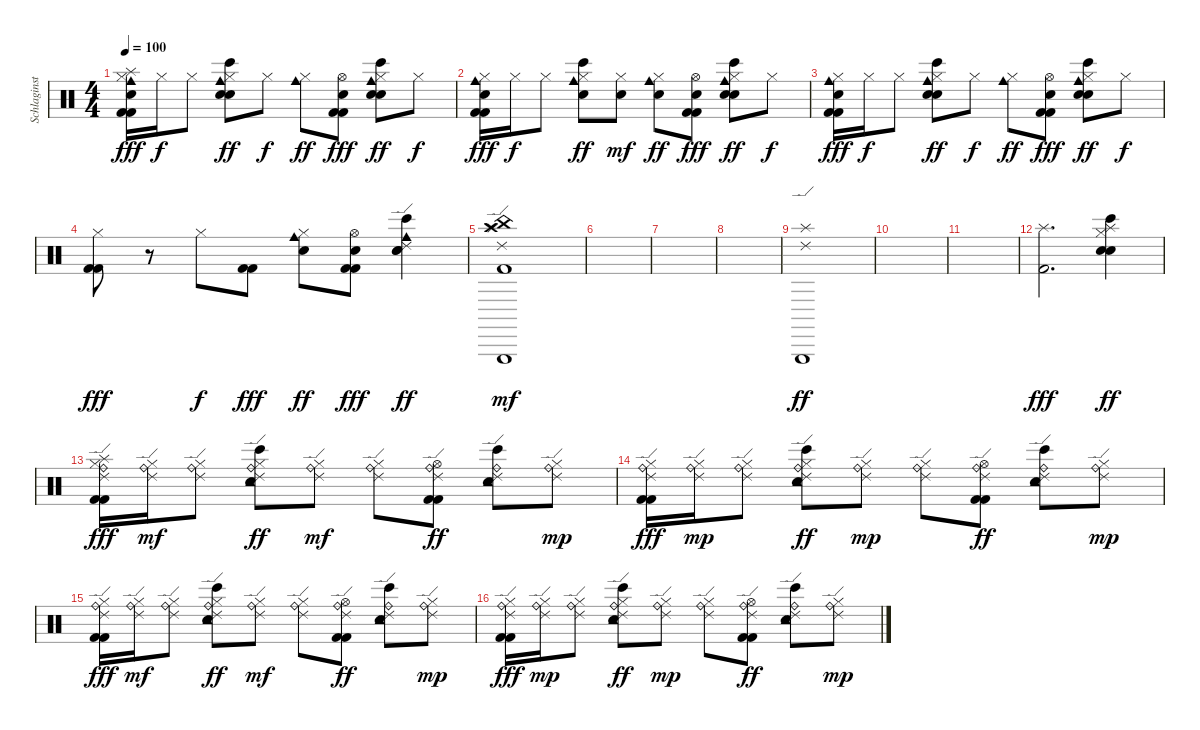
\track ("Schlaginstrumente - Auswahl" "Schlaginst") {instrument percussion}
\staff {score}
\articulation defaults
\ts (4 4)
\tempo 100
\clef neutral
\ks c
("Splash (hit)" "Hand Clap (hit)" "Hi-Hat (closed)" "Cowbell medium (hit)" "Kick (hit) 2" "Kick (hit) 2").16{dy fff} "Hi-Hat (closed)".16{dy f} "Hi-Hat (closed)".8 ("Snare (hit) 2" "Hand Clap (hit)" "Hi-Hat (closed)" "Cowbell medium (hit)" "Bongo High (hit)").8{dy ff} "Hi-Hat (closed)".8{dy f} ("Hi-Hat (closed)" "Cowbell medium (hit)").8{dy ff} ("Hand Clap (hit)" "Hi-Hat (open)" "Kick (hit) 2" "Kick (hit) 2").8{dy fff} ("Snare (hit) 2" "Hand Clap (hit)" "Hi-Hat (closed)" "Cowbell medium (hit)" "Bongo High (hit)").8{dy ff} "Hi-Hat (closed)".8{dy f} |
("Hand Clap (hit)" "Hi-Hat (closed)" "Cowbell medium (hit)" "Kick (hit) 2" "Kick (hit) 2").16{dy fff} "Hi-Hat (closed)".16{dy f} "Hi-Hat (closed)".8 ("Snare (hit) 2" "Hi-Hat (closed)" "Cowbell medium (hit)" "Bongo High (hit)").8{dy ff} ("Hand Clap (hit)" "Hi-Hat (closed)").8{dy mf} ("Hand Clap (hit)" "Hi-Hat (closed)" "Cowbell medium (hit)").8{dy ff} ("Hand Clap (hit)" "Hi-Hat (open)" "Kick (hit) 2" "Kick (hit) 2").8{dy fff} ("Snare (hit) 2" "Hand Clap (hit)" "Hi-Hat (closed)" "Cowbell medium (hit)" "Bongo High (hit)").8{dy ff} "Hi-Hat (closed)".8{dy f} |
("Hand Clap (hit)" "Hi-Hat (closed)" "Cowbell medium (hit)" "Kick (hit) 2" "Kick (hit) 2").16{dy fff} "Hi-Hat (closed)".16{dy f} "Hi-Hat (closed)".8 ("Snare (hit) 2" "Hand Clap (hit)" "Hi-Hat (closed)" "Cowbell medium (hit)" "Bongo High (hit)").8{dy ff} "Hi-Hat (closed)".8{dy f} ("Hi-Hat (closed)" "Cowbell medium (hit)").8{dy ff} ("Hand Clap (hit)" "Hi-Hat (open)" "Kick (hit) 2" "Kick (hit) 2").8{dy fff} ("Snare (hit) 2" "Hand Clap (hit)" "Hi-Hat (closed)" "Cowbell medium (hit)" "Bongo High (hit)").8{dy ff} "Hi-Hat (closed)".8{dy f} |
("Hi-Hat (closed)" "Kick (hit) 2" "Kick (hit) 2").8{dy fff} r.8 "Hi-Hat (closed)".8{dy f} ("Kick (hit) 2" "Kick (hit) 2").8{dy fff} ("Hand Clap (hit)" "Hi-Hat (closed)" "Cowbell medium (hit)").8{dy ff} ("Hand Clap (hit)" "Hi-Hat (open)" "Kick (hit) 2" "Kick (hit) 2").8{dy fff} ("Snare (hit) 2" "Hand Clap (hit)" "Ride (edge) 2" "Cowbell medium (hit)" "Bongo High (hit)").4{dy ff} |
("China (hit)" "Splash (hit)" "Ride (edge) 2" "Triangle (hit)" "Crash high (hit)" "Kick (hit) 2").1{dy mf} |
|
|
|
("Splash (hit)" "Ride (edge) 2" "Triangle (hit)").1{dy ff} |
|
|
("Splash (hit)" "Kick (hit) 2").2{d dy fff} ("Snare (hit) 2" "Hand Clap (hit)" "Hi-Hat (closed)" "Bongo High (hit)" "Splash (hit)").4{dy ff} |
("Splash (hit)" "Ride (bell)" "Ride (edge) 2" "Hi-Hat (closed)" "Kick (hit) 2" "Kick (hit) 2").16{dy fff volume 11} ("Ride (bell)" "Ride (edge) 2" "Hi-Hat (closed)").16{dy mf} ("Ride (bell)" "Ride (edge) 2" "Hi-Hat (closed)").8 ("Snare (hit) 2" "Ride (bell)" "Ride (edge) 2" "Hi-Hat (closed)" "Bongo High (hit)" "Tambourine (hit)").8{dy ff} ("Ride (bell)" "Ride (edge) 2" "Hi-Hat (closed)").8{dy mf} ("Ride (bell)" "Ride (edge) 2" "Hi-Hat (closed)").8 ("Ride (bell)" "Ride (edge) 2" "Hi-Hat (open)" "Kick (hit) 2" "Kick (hit) 2").8{dy ff} ("Snare (hit) 2" "Ride (bell)" "Ride (edge) 2" "Bongo High (hit)" "Tambourine (hit)").8 ("Ride (bell)" "Ride (edge) 2" "Hi-Hat (closed)").8{dy mp} |
("Ride (bell)" "Ride (edge) 2" "Hi-Hat (closed)" "Kick (hit) 2" "Kick (hit) 2").16{dy fff} ("Ride (bell)" "Ride (edge) 2" "Hi-Hat (closed)").16{dy mp} ("Ride (bell)" "Ride (edge) 2" "Hi-Hat (closed)").8 ("Snare (hit) 2" "Ride (bell)" "Ride (edge) 2" "Hi-Hat (closed)" "Bongo High (hit)" "Tambourine (hit)").8{dy ff} ("Ride (bell)" "Ride (edge) 2" "Hi-Hat (closed)").8{dy mp} ("Ride (bell)" "Ride (edge) 2" "Hi-Hat (closed)").8 ("Ride (bell)" "Ride (edge) 2" "Hi-Hat (open)" "Kick (hit) 2" "Kick (hit) 2").8{dy ff} ("Snare (hit) 2" "Ride (bell)" "Ride (edge) 2" "Bongo High (hit)" "Tambourine (hit)").8 ("Ride (bell)" "Ride (edge) 2" "Hi-Hat (closed)").8{dy mp} |
("Ride (bell)" "Ride (edge) 2" "Hi-Hat (closed)" "Kick (hit) 2" "Kick (hit) 2").16{dy fff} ("Ride (bell)" "Ride (edge) 2" "Hi-Hat (closed)").16{dy mf} ("Ride (bell)" "Ride (edge) 2" "Hi-Hat (closed)").8 ("Snare (hit) 2" "Ride (bell)" "Ride (edge) 2" "Hi-Hat (closed)" "Bongo High (hit)" "Tambourine (hit)").8{dy ff} ("Ride (bell)" "Ride (edge) 2" "Hi-Hat (closed)").8{dy mf} ("Ride (bell)" "Ride (edge) 2" "Hi-Hat (closed)").8 ("Ride (bell)" "Ride (edge) 2" "Hi-Hat (open)" "Kick (hit) 2" "Kick (hit) 2").8{dy ff} ("Snare (hit) 2" "Ride (bell)" "Ride (edge) 2" "Bongo High (hit)" "Tambourine (hit)").8 ("Ride (bell)" "Ride (edge) 2" "Hi-Hat (closed)").8{dy mp} |
("Ride (bell)" "Ride (edge) 2" "Hi-Hat (closed)" "Kick (hit) 2" "Kick (hit) 2").16{dy fff} ("Ride (bell)" "Ride (edge) 2" "Hi-Hat (closed)").16{dy mp} ("Ride (bell)" "Ride (edge) 2" "Hi-Hat (closed)").8 ("Snare (hit) 2" "Ride (bell)" "Ride (edge) 2" "Hi-Hat (closed)" "Bongo High (hit)" "Tambourine (hit)").8{dy ff} ("Ride (bell)" "Ride (edge) 2" "Hi-Hat (closed)").8{dy mp} ("Ride (bell)" "Ride (edge) 2" "Hi-Hat (closed)").8 ("Ride (bell)" "Ride (edge) 2" "Hi-Hat (open)" "Kick (hit) 2" "Kick (hit) 2").8{dy ff} ("Snare (hit) 2" "Ride (bell)" "Ride (edge) 2" "Bongo High (hit)" "Tambourine (hit)").8 ("Ride (bell)" "Ride (edge) 2" "Hi-Hat (closed)").8{dy mp}
